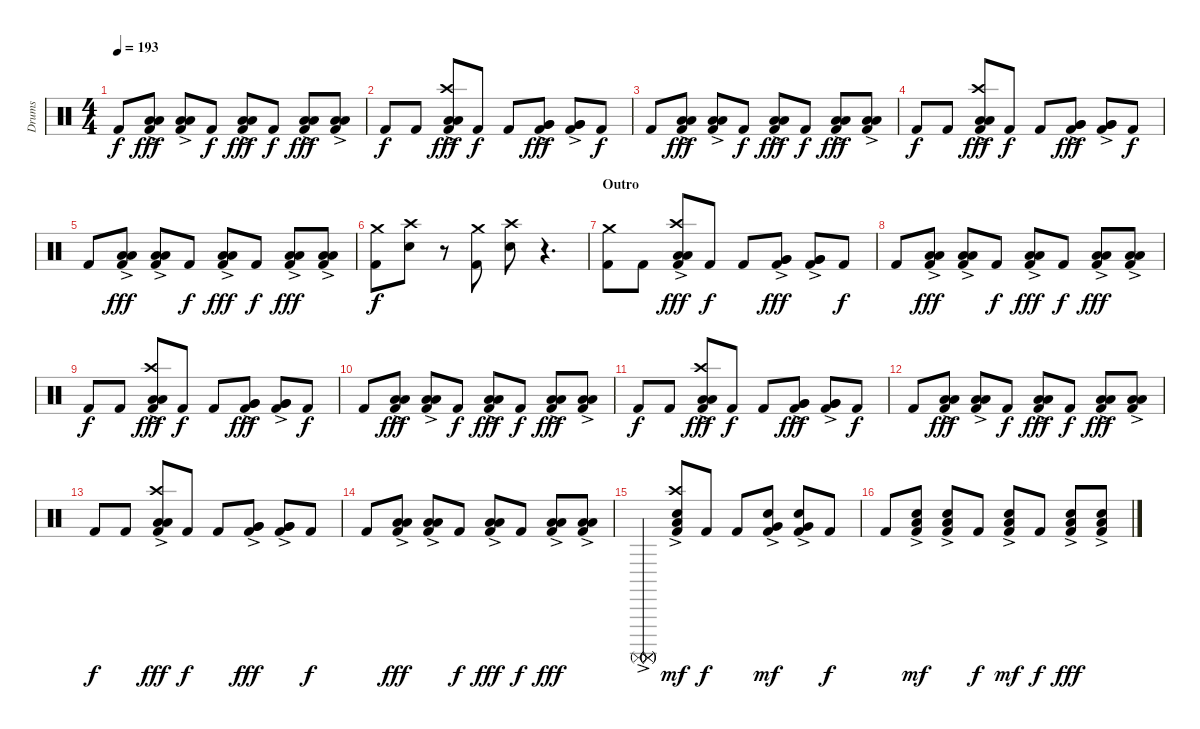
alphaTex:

\track ("Drums" "Drums") {instrument percussion}
\staff {score}
\articulation defaults
\ts (4 4)
\tempo 193
\clef neutral
\ks c "Kick (hit) 2".8{dy f}
("Low Floor Tom (hit)"{ac} "Low Floor Tom (hit)"{ac} "Kick (hit) 2").8{dy fff} ("Low Floor Tom (hit)"{ac} "Low Floor Tom (hit)"{ac} "Kick (hit) 2").8 "Kick (hit) 2".8{dy f} ("Low Floor Tom (hit)"{ac} "Low Floor Tom (hit)"{ac} "Kick (hit) 2").8{dy fff} "Kick (hit) 2".8{dy f} ("Low Floor Tom (hit)"{ac} "Low Floor Tom (hit)"{ac} "Kick (hit) 2"{ac}).8{dy fff} ("Low Floor Tom (hit)"{ac} "Low Floor Tom (hit)"{ac} "Kick (hit) 2"{ac}).8 |
"Kick (hit) 2".8{dy f} "Kick (hit) 2".8 ("Crash high (hit)" "Low Tom (hit)"{ac} "Low Tom (hit)"{ac} "Kick (hit) 2").8{dy fff} "Kick (hit) 2".8{dy f} "Kick (hit) 2".8 ("Very Low Tom (hit)"{ac} "Very Low Tom (hit)"{ac} "Kick (hit) 2").8{dy fff} ("Very Low Tom (hit)"{ac} "Very Low Tom (hit)"{ac} "Kick (hit) 2").8 "Kick (hit) 2".8{dy f} |
"Kick (hit) 2".8 ("Low Floor Tom (hit)"{ac} "Low Floor Tom (hit)"{ac} "Kick (hit) 2").8{dy fff} ("Low Floor Tom (hit)"{ac} "Low Floor Tom (hit)"{ac} "Kick (hit) 2").8 "Kick (hit) 2".8{dy f} ("Low Floor Tom (hit)"{ac} "Low Floor Tom (hit)"{ac} "Kick (hit) 2").8{dy fff} "Kick (hit) 2".8{dy f} ("Low Floor Tom (hit)"{ac} "Low Floor Tom (hit)"{ac} "Kick (hit) 2"{ac}).8{dy fff} ("Low Floor Tom (hit)"{ac} "Low Floor Tom (hit)"{ac} "Kick (hit) 2"{ac}).8 |
"Kick (hit) 2".8{dy f} "Kick (hit) 2".8 ("Crash high (hit)" "Low Tom (hit)"{ac} "Low Tom (hit)"{ac} "Kick (hit) 2").8{dy fff} "Kick (hit) 2".8{dy f} "Kick (hit) 2".8 ("Very Low Tom (hit)"{ac} "Very Low Tom (hit)"{ac} "Kick (hit) 2").8{dy fff} ("Very Low Tom (hit)"{ac} "Very Low Tom (hit)"{ac} "Kick (hit) 2").8 "Kick (hit) 2".8{dy f} |
"Kick (hit) 2".8 ("Low Floor Tom (hit)"{ac} "Low Floor Tom (hit)"{ac} "Kick (hit) 2").8{dy fff} ("Low Floor Tom (hit)"{ac} "Low Floor Tom (hit)"{ac} "Kick (hit) 2").8 "Kick (hit) 2".8{dy f} ("Low Floor Tom (hit)"{ac} "Low Floor Tom (hit)"{ac} "Kick (hit) 2").8{dy fff} "Kick (hit) 2".8{dy f} ("Low Floor Tom (hit)"{ac} "Low Floor Tom (hit)"{ac} "Kick (hit) 2"{ac}).8{dy fff} ("Low Floor Tom (hit)"{ac} "Low Floor Tom (hit)"{ac} "Kick (hit) 2"{ac}).8 |
("Crash medium (hit)" "Kick (hit) 2").8{dy f} ("Crash high (hit)" "Snare (hit) 2").8 r.8 ("Crash medium (hit)" "Kick (hit) 2").8 ("Crash high (hit)" "Snare (hit) 2").8 r.4{d} |
\section ("" "Outro")
("Crash medium (hit)" "Kick (hit) 2").8 "Kick (hit) 2".8 ("Crash high (hit)" "Low Tom (hit)"{ac} "Low Tom (hit)"{ac} "Kick (hit) 2").8{dy fff} "Kick (hit) 2".8{dy f} "Kick (hit) 2".8 ("Very Low Tom (hit)"{ac} "Very Low Tom (hit)"{ac} "Kick (hit) 2").8{dy fff} ("Very Low Tom (hit)"{ac} "Very Low Tom (hit)"{ac} "Kick (hit) 2").8 "Kick (hit) 2".8{dy f} |
"Kick (hit) 2".8 ("Low Floor Tom (hit)"{ac} "Low Floor Tom (hit)"{ac} "Kick (hit) 2").8{dy fff} ("Low Floor Tom (hit)"{ac} "Low Floor Tom (hit)"{ac} "Kick (hit) 2").8 "Kick (hit) 2".8{dy f} ("Low Floor Tom (hit)"{ac} "Low Floor Tom (hit)"{ac} "Kick (hit) 2").8{dy fff} "Kick (hit) 2".8{dy f} ("Low Floor Tom (hit)"{ac} "Low Floor Tom (hit)"{ac} "Kick (hit) 2"{ac}).8{dy fff} ("Low Floor Tom (hit)"{ac} "Low Floor Tom (hit)"{ac} "Kick (hit) 2"{ac}).8 |
"Kick (hit) 2".8{dy f} "Kick (hit) 2".8 ("Crash high (hit)" "Low Tom (hit)"{ac} "Low Tom (hit)"{ac} "Kick (hit) 2").8{dy fff} "Kick (hit) 2".8{dy f} "Kick (hit) 2".8 ("Very Low Tom (hit)"{ac} "Very Low Tom (hit)"{ac} "Kick (hit) 2").8{dy fff} ("Very Low Tom (hit)"{ac} "Very Low Tom (hit)"{ac} "Kick (hit) 2").8 "Kick (hit) 2".8{dy f} |
"Kick (hit) 2".8 ("Low Floor Tom (hit)"{ac} "Low Floor Tom (hit)"{ac} "Kick (hit) 2").8{dy fff} ("Low Floor Tom (hit)"{ac} "Low Floor Tom (hit)"{ac} "Kick (hit) 2").8 "Kick (hit) 2".8{dy f} ("Low Floor Tom (hit)"{ac} "Low Floor Tom (hit)"{ac} "Kick (hit) 2").8{dy fff} "Kick (hit) 2".8{dy f} ("Low Floor Tom (hit)"{ac} "Low Floor Tom (hit)"{ac} "Kick (hit) 2"{ac}).8{dy fff} ("Low Floor Tom (hit)"{ac} "Low Floor Tom (hit)"{ac} "Kick (hit) 2"{ac}).8 |
"Kick (hit) 2".8{dy f} "Kick (hit) 2".8 ("Crash high (hit)" "Low Tom (hit)"{ac} "Low Tom (hit)"{ac} "Kick (hit) 2").8{dy fff} "Kick (hit) 2".8{dy f} "Kick (hit) 2".8 ("Very Low Tom (hit)"{ac} "Very Low Tom (hit)"{ac} "Kick (hit) 2").8{dy fff} ("Very Low Tom (hit)"{ac} "Very Low Tom (hit)"{ac} "Kick (hit) 2").8 "Kick (hit) 2".8{dy f} |
"Kick (hit) 2".8 ("Low Floor Tom (hit)"{ac} "Low Floor Tom (hit)"{ac} "Kick (hit) 2").8{dy fff} ("Low Floor Tom (hit)"{ac} "Low Floor Tom (hit)"{ac} "Kick (hit) 2").8 "Kick (hit) 2".8{dy f} ("Low Floor Tom (hit)"{ac} "Low Floor Tom (hit)"{ac} "Kick (hit) 2").8{dy fff} "Kick (hit) 2".8{dy f} ("Low Floor Tom (hit)"{ac} "Low Floor Tom (hit)"{ac} "Kick (hit) 2"{ac}).8{dy fff} ("Low Floor Tom (hit)"{ac} "Low Floor Tom (hit)"{ac} "Kick (hit) 2"{ac}).8 |
"Kick (hit) 2".8{dy f} "Kick (hit) 2".8 ("Crash high (hit)" "Low Tom (hit)"{ac} "Low Tom (hit)"{ac} "Kick (hit) 2").8{dy fff} "Kick (hit) 2".8{dy f} "Kick (hit) 2".8 ("Very Low Tom (hit)"{ac} "Very Low Tom (hit)"{ac} "Kick (hit) 2").8{dy fff} ("Very Low Tom (hit)"{ac} "Very Low Tom (hit)"{ac} "Kick (hit) 2").8 "Kick (hit) 2".8{dy f} |
"Kick (hit) 2".8 ("Low Floor Tom (hit)"{ac} "Low Floor Tom (hit)"{ac} "Kick (hit) 2").8{dy fff} ("Low Floor Tom (hit)"{ac} "Low Floor Tom (hit)"{ac} "Kick (hit) 2").8 "Kick (hit) 2".8{dy f} ("Low Floor Tom (hit)"{ac} "Low Floor Tom (hit)"{ac} "Kick (hit) 2").8{dy fff} "Kick (hit) 2".8{dy f} ("Low Floor Tom (hit)"{ac} "Low Floor Tom (hit)"{ac} "Kick (hit) 2"{ac}).8{dy fff} ("Low Floor Tom (hit)"{ac} "Low Floor Tom (hit)"{ac} "Kick (hit) 2"{ac}).8 |
("Surdo (mute)"{ac} "Surdo (mute)"{ac} "Surdo (mute)"{ac} "Surdo (mute)"{ac}).4 ("Crash high (hit)" "Low Tom (hit)"{ac} "Snare (hit) 2"{ac} "Kick (hit) 2").8{dy mf} "Kick (hit) 2".8{dy f} "Kick (hit) 2".8 ("Very Low Tom (hit)"{ac} "Snare (hit) 2"{ac} "Kick (hit) 2").8{dy mf} ("Very Low Tom (hit)"{ac} "Snare (hit) 2"{ac} "Kick (hit) 2").8 "Kick (hit) 2".8{dy f} |
"Kick (hit) 2".8 ("Low Floor Tom (hit)"{ac} "Snare (hit) 2"{ac} "Kick (hit) 2").8{dy mf} ("Low Floor Tom (hit)"{ac} "Snare (hit) 2"{ac} "Kick (hit) 2").8 "Kick (hit) 2".8{dy f} ("Low Floor Tom (hit)"{ac} "Snare (hit) 2"{ac} "Kick (hit) 2").8{dy mf} "Kick (hit) 2".8{dy f} ("Low Floor Tom (hit)"{ac} "Snare (hit) 2"{ac} "Kick (hit) 2"{ac}).8{dy fff} ("Low Floor Tom (hit)"{ac} "Snare (hit) 2"{ac} "Kick (hit) 2"{ac}).8
